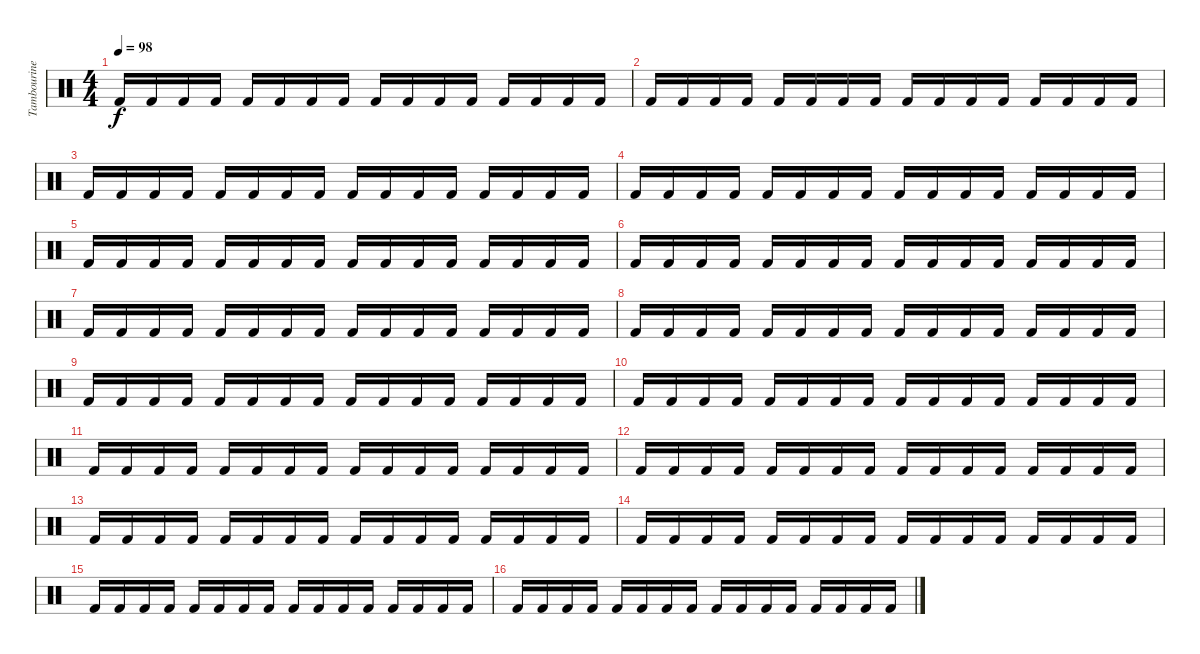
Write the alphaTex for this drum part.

\track ("Tambourine" "Tambourine") {instrument percussion}
\staff {score}
\articulation defaults
\ts (4 4)
\tempo 98
\clef neutral
\ks c "Kick (hit) 2".16{dy f} "Kick (hit) 2".16 "Kick (hit) 2".16 "Kick (hit) 2".16 "Kick (hit) 2".16 "Kick (hit) 2".16 "Kick (hit) 2".16 "Kick (hit) 2".16 "Kick (hit) 2".16 "Kick (hit) 2".16 "Kick (hit) 2".16 "Kick (hit) 2".16 "Kick (hit) 2".16 "Kick (hit) 2".16 "Kick (hit) 2".16 "Kick (hit) 2".16
|
"Kick (hit) 2".16 "Kick (hit) 2".16 "Kick (hit) 2".16 "Kick (hit) 2".16 "Kick (hit) 2".16 "Kick (hit) 2".16 "Kick (hit) 2".16 "Kick (hit) 2".16 "Kick (hit) 2".16 "Kick (hit) 2".16 "Kick (hit) 2".16 "Kick (hit) 2".16 "Kick (hit) 2".16 "Kick (hit) 2".16 "Kick (hit) 2".16 "Kick (hit) 2".16 |
"Kick (hit) 2".16 "Kick (hit) 2".16 "Kick (hit) 2".16 "Kick (hit) 2".16 "Kick (hit) 2".16 "Kick (hit) 2".16 "Kick (hit) 2".16 "Kick (hit) 2".16 "Kick (hit) 2".16 "Kick (hit) 2".16 "Kick (hit) 2".16 "Kick (hit) 2".16 "Kick (hit) 2".16 "Kick (hit) 2".16 "Kick (hit) 2".16 "Kick (hit) 2".16 |
"Kick (hit) 2".16 "Kick (hit) 2".16 "Kick (hit) 2".16 "Kick (hit) 2".16 "Kick (hit) 2".16 "Kick (hit) 2".16 "Kick (hit) 2".16 "Kick (hit) 2".16 "Kick (hit) 2".16 "Kick (hit) 2".16 "Kick (hit) 2".16 "Kick (hit) 2".16 "Kick (hit) 2".16 "Kick (hit) 2".16 "Kick (hit) 2".16 "Kick (hit) 2".16 |
"Kick (hit) 2".16 "Kick (hit) 2".16 "Kick (hit) 2".16 "Kick (hit) 2".16 "Kick (hit) 2".16 "Kick (hit) 2".16 "Kick (hit) 2".16 "Kick (hit) 2".16 "Kick (hit) 2".16 "Kick (hit) 2".16 "Kick (hit) 2".16 "Kick (hit) 2".16 "Kick (hit) 2".16 "Kick (hit) 2".16 "Kick (hit) 2".16 "Kick (hit) 2".16 |
"Kick (hit) 2".16 "Kick (hit) 2".16 "Kick (hit) 2".16 "Kick (hit) 2".16 "Kick (hit) 2".16 "Kick (hit) 2".16 "Kick (hit) 2".16 "Kick (hit) 2".16 "Kick (hit) 2".16 "Kick (hit) 2".16 "Kick (hit) 2".16 "Kick (hit) 2".16 "Kick (hit) 2".16 "Kick (hit) 2".16 "Kick (hit) 2".16 "Kick (hit) 2".16 |
"Kick (hit) 2".16 "Kick (hit) 2".16 "Kick (hit) 2".16 "Kick (hit) 2".16 "Kick (hit) 2".16 "Kick (hit) 2".16 "Kick (hit) 2".16 "Kick (hit) 2".16 "Kick (hit) 2".16 "Kick (hit) 2".16 "Kick (hit) 2".16 "Kick (hit) 2".16 "Kick (hit) 2".16 "Kick (hit) 2".16 "Kick (hit) 2".16 "Kick (hit) 2".16 |
"Kick (hit) 2".16 "Kick (hit) 2".16 "Kick (hit) 2".16 "Kick (hit) 2".16 "Kick (hit) 2".16 "Kick (hit) 2".16 "Kick (hit) 2".16 "Kick (hit) 2".16 "Kick (hit) 2".16 "Kick (hit) 2".16 "Kick (hit) 2".16 "Kick (hit) 2".16 "Kick (hit) 2".16 "Kick (hit) 2".16 "Kick (hit) 2".16 "Kick (hit) 2".16 |
"Kick (hit) 2".16 "Kick (hit) 2".16 "Kick (hit) 2".16 "Kick (hit) 2".16 "Kick (hit) 2".16 "Kick (hit) 2".16 "Kick (hit) 2".16 "Kick (hit) 2".16 "Kick (hit) 2".16 "Kick (hit) 2".16 "Kick (hit) 2".16 "Kick (hit) 2".16 "Kick (hit) 2".16 "Kick (hit) 2".16 "Kick (hit) 2".16 "Kick (hit) 2".16 |
"Kick (hit) 2".16 "Kick (hit) 2".16 "Kick (hit) 2".16 "Kick (hit) 2".16 "Kick (hit) 2".16 "Kick (hit) 2".16 "Kick (hit) 2".16 "Kick (hit) 2".16 "Kick (hit) 2".16 "Kick (hit) 2".16 "Kick (hit) 2".16 "Kick (hit) 2".16 "Kick (hit) 2".16 "Kick (hit) 2".16 "Kick (hit) 2".16 "Kick (hit) 2".16 |
"Kick (hit) 2".16 "Kick (hit) 2".16 "Kick (hit) 2".16 "Kick (hit) 2".16 "Kick (hit) 2".16 "Kick (hit) 2".16 "Kick (hit) 2".16 "Kick (hit) 2".16 "Kick (hit) 2".16 "Kick (hit) 2".16 "Kick (hit) 2".16 "Kick (hit) 2".16 "Kick (hit) 2".16 "Kick (hit) 2".16 "Kick (hit) 2".16 "Kick (hit) 2".16 |
"Kick (hit) 2".16 "Kick (hit) 2".16 "Kick (hit) 2".16 "Kick (hit) 2".16 "Kick (hit) 2".16 "Kick (hit) 2".16 "Kick (hit) 2".16 "Kick (hit) 2".16 "Kick (hit) 2".16 "Kick (hit) 2".16 "Kick (hit) 2".16 "Kick (hit) 2".16 "Kick (hit) 2".16 "Kick (hit) 2".16 "Kick (hit) 2".16 "Kick (hit) 2".16 |
"Kick (hit) 2".16 "Kick (hit) 2".16 "Kick (hit) 2".16 "Kick (hit) 2".16 "Kick (hit) 2".16 "Kick (hit) 2".16 "Kick (hit) 2".16 "Kick (hit) 2".16 "Kick (hit) 2".16 "Kick (hit) 2".16 "Kick (hit) 2".16 "Kick (hit) 2".16 "Kick (hit) 2".16 "Kick (hit) 2".16 "Kick (hit) 2".16 "Kick (hit) 2".16 |
"Kick (hit) 2".16 "Kick (hit) 2".16 "Kick (hit) 2".16 "Kick (hit) 2".16 "Kick (hit) 2".16 "Kick (hit) 2".16 "Kick (hit) 2".16 "Kick (hit) 2".16 "Kick (hit) 2".16 "Kick (hit) 2".16 "Kick (hit) 2".16 "Kick (hit) 2".16 "Kick (hit) 2".16 "Kick (hit) 2".16 "Kick (hit) 2".16 "Kick (hit) 2".16 |
"Kick (hit) 2".16 "Kick (hit) 2".16 "Kick (hit) 2".16 "Kick (hit) 2".16 "Kick (hit) 2".16 "Kick (hit) 2".16 "Kick (hit) 2".16 "Kick (hit) 2".16 "Kick (hit) 2".16 "Kick (hit) 2".16 "Kick (hit) 2".16 "Kick (hit) 2".16 "Kick (hit) 2".16 "Kick (hit) 2".16 "Kick (hit) 2".16 "Kick (hit) 2".16 |
"Kick (hit) 2".16 "Kick (hit) 2".16 "Kick (hit) 2".16 "Kick (hit) 2".16 "Kick (hit) 2".16 "Kick (hit) 2".16 "Kick (hit) 2".16 "Kick (hit) 2".16 "Kick (hit) 2".16 "Kick (hit) 2".16 "Kick (hit) 2".16 "Kick (hit) 2".16 "Kick (hit) 2".16 "Kick (hit) 2".16 "Kick (hit) 2".16 "Kick (hit) 2".16
